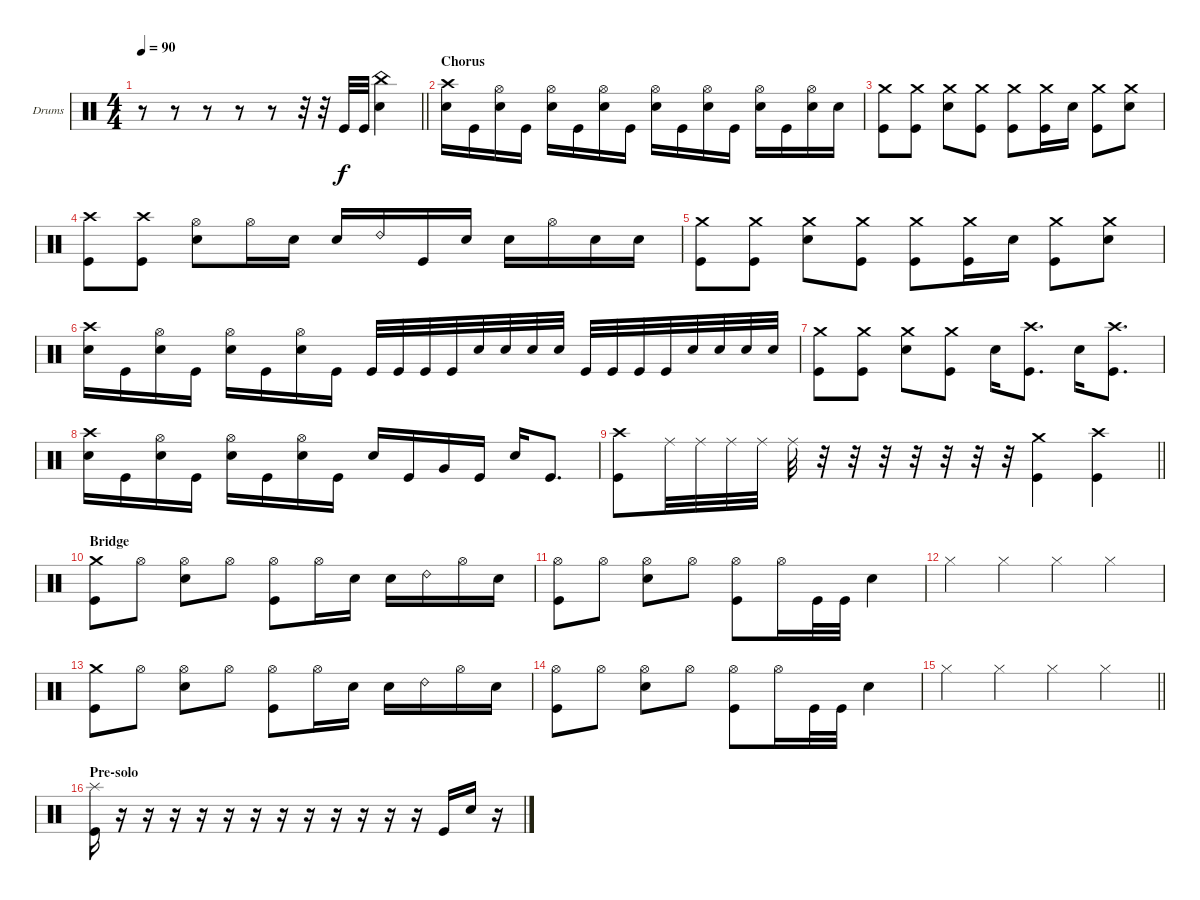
\bracketExtendMode groupsimilarinstruments
\firstSystemTrackNameOrientation horizontal
\otherSystemsTrackNameOrientation horizontal
\track ("Drumkit" "Drums") {instrument percussion}
\staff {score}
\articulation defaults
\ts (4 4)
\tempo 90
\clef neutral
\barLineRight lightlight
\ks c
r.8{dy f} r.8 r.8 r.8 r.8 r.32 r.32 "Kick (hit)".32 "Kick (hit)".32 ("China (hit)" "Snare (hit) 2").4 |
\section ("" "Chorus")
("Crash high (hit)" "Snare (hit) 2").16 "Kick (hit)".16 ("Hi-Hat (open)" "Snare (hit) 2").16 "Kick (hit)".16 ("Hi-Hat (open)" "Snare (hit) 2").16 "Kick (hit)".16 ("Hi-Hat (open)" "Snare (hit) 2").16 "Kick (hit)".16 ("Hi-Hat (open)" "Snare (hit) 2").16 "Kick (hit)".16 ("Hi-Hat (open)" "Snare (hit) 2").16 "Kick (hit)".16 ("Hi-Hat (open)" "Snare (hit) 2").16 "Kick (hit)".16 ("Hi-Hat (open)" "Snare (hit) 2").16 "Snare (hit) 2".16 |
("Crash medium (hit)" "Kick (hit)").8 ("Crash medium (hit)" "Kick (hit)").8 ("Crash medium (hit)" "Snare (hit) 2").8 ("Crash medium (hit)" "Kick (hit)").8 ("Crash medium (hit)" "Kick (hit)").8 ("Crash medium (hit)" "Kick (hit)").16 "Snare (hit) 2".16 ("Crash medium (hit)" "Kick (hit)").8 ("Crash medium (hit)" "Snare (hit) 2").8 |
("Crash high (hit)" "Kick (hit)").8 ("Crash high (hit)" "Kick (hit)").8 ("Hi-Hat (open)" "Snare (hit) 2").8 "Hi-Hat (open)".16 "Snare (hit) 2".16 "Snare (hit) 2".16 "Ride (bell) 2".16 "Kick (hit)".16 "Snare (hit) 2".16 "Snare (hit) 2".16 "Hi-Hat (open)".16 "Snare (hit) 2".16 "Snare (hit) 2".16 |
("Crash medium (hit)" "Kick (hit)").8 ("Crash medium (hit)" "Kick (hit)").8 ("Crash medium (hit)" "Snare (hit) 2").8 ("Crash medium (hit)" "Kick (hit)").8 ("Crash medium (hit)" "Kick (hit)").8 ("Crash medium (hit)" "Kick (hit)").16 "Snare (hit) 2".16 ("Crash medium (hit)" "Kick (hit)").8 ("Crash medium (hit)" "Snare (hit) 2").8 |
("Crash high (hit)" "Snare (hit) 2").16 "Kick (hit)".16 ("Hi-Hat (open)" "Snare (hit) 2").16 "Kick (hit)".16 ("Hi-Hat (open)" "Snare (hit) 2").16 "Kick (hit)".16 ("Hi-Hat (open)" "Snare (hit) 2").16 "Kick (hit)".16 "Kick (hit)".32 "Kick (hit)".32 "Kick (hit)".32 "Kick (hit)".32 "Snare (hit) 2".32 "Snare (hit) 2".32 "Snare (hit) 2".32 "Snare (hit) 2".32 "Kick (hit)".32 "Kick (hit)".32 "Kick (hit)".32 "Kick (hit)".32 "Snare (hit) 2".32 "Snare (hit) 2".32 "Snare (hit) 2".32 "Snare (hit) 2".32 |
("Crash medium (hit)" "Kick (hit)").8 ("Crash medium (hit)" "Kick (hit)").8 ("Crash medium (hit)" "Snare (hit) 2").8 ("Crash medium (hit)" "Kick (hit)").8 "Snare (hit) 2".16 ("Crash high (hit)" "Kick (hit)").8{d} "Snare (hit) 2".16 ("Crash high (hit)" "Kick (hit)").8{d} |
("Crash high (hit)" "Snare (hit) 2").16 "Kick (hit)".16 ("Hi-Hat (open)" "Snare (hit) 2").16 "Kick (hit)".16 ("Hi-Hat (open)" "Snare (hit) 2").16 "Kick (hit)".16 ("Hi-Hat (open)" "Snare (hit) 2").16 "Kick (hit)".16 "Snare (hit) 2".16 "Kick (hit)".16 "Very Low Tom (hit)".16 "Kick (hit)".16 "Snare (hit) 2".16 "Kick (hit)".8{d} |
\barLineRight lightlight
("Crash high (hit)" "Kick (hit)").8 "Ride (middle)".32 "Ride (middle)".32 "Ride (middle)".32 "Ride (middle)".32 "Ride (middle)".32 r.32 r.32 r.32 r.32 r.32 r.32 r.32 ("Crash medium (hit)" "Kick (hit)").4 ("Crash high (hit)" "Kick (hit)").4 |
\section ("" "Bridge")
("Crash medium (hit)" "Kick (hit)").8 "Hi-Hat (open)".8 ("Hi-Hat (open)" "Snare (hit) 2").8 "Hi-Hat (open)".8 ("Hi-Hat (open)" "Kick (hit)").8 "Hi-Hat (open)".16 "Snare (hit) 2".16 "Snare (hit) 2".16 "Ride (bell) 2".16 "Hi-Hat (open)".16 "Snare (hit) 2".16 |
("Hi-Hat (open)" "Kick (hit)").8 "Hi-Hat (open)".8 ("Hi-Hat (open)" "Snare (hit) 2").8 "Hi-Hat (open)".8 ("Hi-Hat (open)" "Kick (hit)").8 "Hi-Hat (open)".16 "Kick (hit)".32 "Kick (hit)".32 "Snare (hit) 2".4 |
"Hi-Hat (closed)".4 "Hi-Hat (closed)".4 "Hi-Hat (closed)".4 "Hi-Hat (closed)".4 |
("Crash medium (hit)" "Kick (hit)").8 "Hi-Hat (open)".8 ("Hi-Hat (open)" "Snare (hit) 2").8 "Hi-Hat (open)".8 ("Hi-Hat (open)" "Kick (hit)").8 "Hi-Hat (open)".16 "Snare (hit) 2".16 "Snare (hit) 2".16 "Ride (bell) 2".16 "Hi-Hat (open)".16 "Snare (hit) 2".16 |
("Hi-Hat (open)" "Kick (hit)").8 "Hi-Hat (open)".8 ("Hi-Hat (open)" "Snare (hit) 2").8 "Hi-Hat (open)".8 ("Hi-Hat (open)" "Kick (hit)").8 "Hi-Hat (open)".16 "Kick (hit)".32 "Kick (hit)".32 "Snare (hit) 2".4 |
\barLineRight lightlight "Hi-Hat (closed)".4 "Hi-Hat (closed)".4 "Hi-Hat (closed)".4 "Hi-Hat (closed)".4
|
\section ("" "Pre-solo ")
("Splash (hit)" "Kick (hit)").16 r.16 r.16 r.16 r.16 r.16 r.16 r.16 r.16 r.16 r.16 r.16 r.16 "Kick (hit)".16 "Snare (hit) 2".16 r.16
